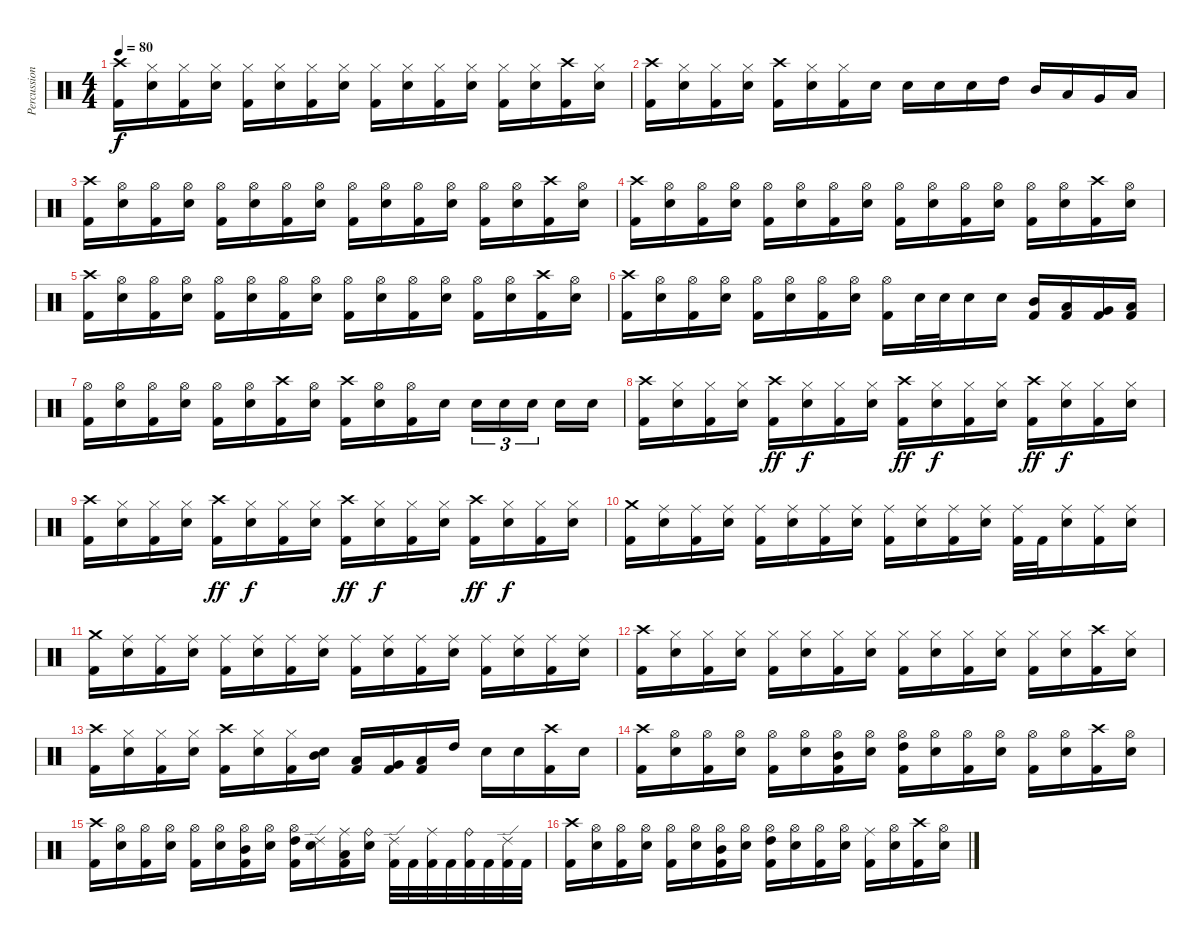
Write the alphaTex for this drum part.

\track ("Percussion" "Percussion") {instrument percussion}
\staff {score}
\articulation defaults
\ts (4 4)
\tempo 80
\clef neutral
\ks c
("Crash high (hit)" "Kick (hit) 2").16{dy f} ("Hi-Hat (closed)" "Snare (hit) 2").16 ("Hi-Hat (closed)" "Kick (hit) 2").16 ("Hi-Hat (closed)" "Snare (hit) 2").16 ("Hi-Hat (closed)" "Kick (hit) 2").16 ("Hi-Hat (closed)" "Snare (hit) 2").16 ("Hi-Hat (closed)" "Kick (hit) 2").16 ("Hi-Hat (closed)" "Snare (hit) 2").16 ("Hi-Hat (closed)" "Kick (hit) 2").16 ("Hi-Hat (closed)" "Snare (hit) 2").16 ("Hi-Hat (closed)" "Kick (hit) 2").16 ("Hi-Hat (closed)" "Snare (hit) 2").16 ("Hi-Hat (closed)" "Kick (hit) 2").16 ("Hi-Hat (closed)" "Snare (hit) 2").16 ("Crash high (hit)" "Kick (hit) 2").16 ("Hi-Hat (closed)" "Snare (hit) 2").16 |
("Crash high (hit)" "Kick (hit) 2").16 ("Hi-Hat (closed)" "Snare (hit) 2").16 ("Hi-Hat (closed)" "Kick (hit) 2").16 ("Hi-Hat (closed)" "Snare (hit) 2").16 ("Crash high (hit)" "Kick (hit) 2").16 ("Hi-Hat (closed)" "Snare (hit) 2").16 ("Hi-Hat (closed)" "Kick (hit) 2").16 "Snare (hit) 2".16 "Snare (hit) 2".16 "Snare (hit) 2".16 "Snare (hit) 2".16 "High Tom (hit)".16 "Mid Tom (hit)".16 "Low Tom (hit)".16 "Very Low Tom (hit)".16 "Low Floor Tom (hit)".16 |
("Crash high (hit)" "Kick (hit) 2").16 ("Hi-Hat (open)" "Snare (hit) 2").16 ("Hi-Hat (open)" "Kick (hit) 2").16 ("Hi-Hat (open)" "Snare (hit) 2").16 ("Hi-Hat (open)" "Kick (hit) 2").16 ("Hi-Hat (open)" "Snare (hit) 2").16 ("Hi-Hat (open)" "Kick (hit) 2").16 ("Hi-Hat (open)" "Snare (hit) 2").16 ("Hi-Hat (open)" "Kick (hit) 2").16 ("Hi-Hat (open)" "Snare (hit) 2").16 ("Hi-Hat (open)" "Kick (hit) 2").16 ("Hi-Hat (open)" "Snare (hit) 2").16 ("Hi-Hat (open)" "Kick (hit) 2").16 ("Hi-Hat (open)" "Snare (hit) 2").16 ("Crash high (hit)" "Kick (hit) 2").16 ("Hi-Hat (open)" "Snare (hit) 2").16 |
("Crash high (hit)" "Kick (hit) 2").16 ("Hi-Hat (open)" "Snare (hit) 2").16 ("Hi-Hat (open)" "Kick (hit) 2").16 ("Hi-Hat (open)" "Snare (hit) 2").16 ("Hi-Hat (open)" "Kick (hit) 2").16 ("Hi-Hat (open)" "Snare (hit) 2").16 ("Hi-Hat (open)" "Kick (hit) 2").16 ("Hi-Hat (open)" "Snare (hit) 2").16 ("Hi-Hat (open)" "Kick (hit) 2").16 ("Hi-Hat (open)" "Snare (hit) 2").16 ("Hi-Hat (open)" "Kick (hit) 2").16 ("Hi-Hat (open)" "Snare (hit) 2").16 ("Hi-Hat (open)" "Kick (hit) 2").16 ("Hi-Hat (open)" "Snare (hit) 2").16 ("Crash high (hit)" "Kick (hit) 2").16 ("Hi-Hat (open)" "Snare (hit) 2").16 |
("Crash high (hit)" "Kick (hit) 2").16 ("Hi-Hat (open)" "Snare (hit) 2").16 ("Hi-Hat (open)" "Kick (hit) 2").16 ("Hi-Hat (open)" "Snare (hit) 2").16 ("Hi-Hat (open)" "Kick (hit) 2").16 ("Hi-Hat (open)" "Snare (hit) 2").16 ("Hi-Hat (open)" "Kick (hit) 2").16 ("Hi-Hat (open)" "Snare (hit) 2").16 ("Hi-Hat (open)" "Kick (hit) 2").16 ("Hi-Hat (open)" "Snare (hit) 2").16 ("Hi-Hat (open)" "Kick (hit) 2").16 ("Hi-Hat (open)" "Snare (hit) 2").16 ("Hi-Hat (open)" "Kick (hit) 2").16 ("Hi-Hat (open)" "Snare (hit) 2").16 ("Crash high (hit)" "Kick (hit) 2").16 ("Hi-Hat (open)" "Snare (hit) 2").16 |
("Crash high (hit)" "Kick (hit) 2").16 ("Hi-Hat (open)" "Snare (hit) 2").16 ("Hi-Hat (open)" "Kick (hit) 2").16 ("Hi-Hat (open)" "Snare (hit) 2").16 ("Hi-Hat (open)" "Kick (hit) 2").16 ("Hi-Hat (open)" "Snare (hit) 2").16 ("Hi-Hat (open)" "Kick (hit) 2").16 ("Hi-Hat (open)" "Snare (hit) 2").16 ("Hi-Hat (open)" "Kick (hit) 2").16 "Snare (hit) 2".32 "Snare (hit) 2".32 "Snare (hit) 2".16 "Snare (hit) 2".16 ("Mid Tom (hit)" "Kick (hit) 2").16 ("Low Tom (hit)" "Kick (hit) 2").16 ("Very Low Tom (hit)" "Kick (hit) 2").16 ("Low Floor Tom (hit)" "Kick (hit) 2").16 |
("Hi-Hat (open)" "Kick (hit) 2").16 ("Hi-Hat (open)" "Snare (hit) 2").16 ("Hi-Hat (open)" "Kick (hit) 2").16 ("Hi-Hat (open)" "Snare (hit) 2").16 ("Hi-Hat (open)" "Kick (hit) 2").16 ("Hi-Hat (open)" "Snare (hit) 2").16 ("Crash high (hit)" "Kick (hit) 2").16 ("Hi-Hat (open)" "Snare (hit) 2").16 ("Crash high (hit)" "Kick (hit) 2").16 ("Hi-Hat (open)" "Snare (hit) 2").16 ("Hi-Hat (open)" "Kick (hit) 2").16 "Snare (hit) 2".16 "Snare (hit) 2".16{tu (3 2)} "Snare (hit) 2".16{tu (3 2)} "Snare (hit) 2".16{tu (3 2) beam splitsecondary} "Snare (hit) 2".16 "Snare (hit) 2".16 |
("Crash high (hit)" "Kick (hit) 2").16 ("Hi-Hat (closed)" "Snare (hit) 2").16 ("Hi-Hat (closed)" "Kick (hit) 2").16 ("Hi-Hat (closed)" "Snare (hit) 2").16 ("Crash high (hit)" "Kick (hit) 2").16{dy ff} ("Hi-Hat (closed)" "Snare (hit) 2").16{dy f} ("Hi-Hat (closed)" "Kick (hit) 2").16 ("Hi-Hat (closed)" "Snare (hit) 2").16 ("Crash high (hit)" "Kick (hit) 2").16{dy ff} ("Hi-Hat (closed)" "Snare (hit) 2").16{dy f} ("Hi-Hat (closed)" "Kick (hit) 2").16 ("Hi-Hat (closed)" "Snare (hit) 2").16 ("Crash high (hit)" "Kick (hit) 2").16{dy ff} ("Hi-Hat (closed)" "Snare (hit) 2").16{dy f} ("Hi-Hat (closed)" "Kick (hit) 2").16 ("Hi-Hat (closed)" "Snare (hit) 2").16 |
("Crash high (hit)" "Kick (hit) 2").16 ("Hi-Hat (closed)" "Snare (hit) 2").16 ("Hi-Hat (closed)" "Kick (hit) 2").16 ("Hi-Hat (closed)" "Snare (hit) 2").16 ("Crash high (hit)" "Kick (hit) 2").16{dy ff} ("Hi-Hat (closed)" "Snare (hit) 2").16{dy f} ("Hi-Hat (closed)" "Kick (hit) 2").16 ("Hi-Hat (closed)" "Snare (hit) 2").16 ("Crash high (hit)" "Kick (hit) 2").16{dy ff} ("Hi-Hat (closed)" "Snare (hit) 2").16{dy f} ("Hi-Hat (closed)" "Kick (hit) 2").16 ("Hi-Hat (closed)" "Snare (hit) 2").16 ("Crash high (hit)" "Kick (hit) 2").16{dy ff} ("Hi-Hat (closed)" "Snare (hit) 2").16{dy f} ("Hi-Hat (closed)" "Kick (hit) 2").16 ("Hi-Hat (closed)" "Snare (hit) 2").16 |
("Crash medium (hit)" "Kick (hit) 2").16 ("Ride (middle)" "Snare (hit) 2").16 ("Ride (middle)" "Kick (hit) 2").16 ("Ride (middle)" "Snare (hit) 2").16 ("Ride (middle)" "Kick (hit) 2").16 ("Ride (middle)" "Snare (hit) 2").16 ("Ride (middle)" "Kick (hit) 2").16 ("Ride (middle)" "Snare (hit) 2").16 ("Ride (middle)" "Kick (hit) 2").16 ("Ride (middle)" "Snare (hit) 2").16 ("Ride (middle)" "Kick (hit) 2").16 ("Ride (middle)" "Snare (hit) 2").16 ("Ride (middle)" "Kick (hit) 2").32 "Kick (hit) 2".32 ("Ride (middle)" "Snare (hit) 2").16 ("Ride (middle)" "Kick (hit) 2").16 ("Ride (middle)" "Snare (hit) 2").16 |
("Crash medium (hit)" "Kick (hit) 2").16 ("Ride (middle)" "Snare (hit) 2").16 ("Ride (middle)" "Kick (hit) 2").16 ("Ride (middle)" "Snare (hit) 2").16 ("Ride (middle)" "Kick (hit) 2").16 ("Ride (middle)" "Snare (hit) 2").16 ("Ride (middle)" "Kick (hit) 2").16 ("Ride (middle)" "Snare (hit) 2").16 ("Ride (middle)" "Kick (hit) 2").16 ("Ride (middle)" "Snare (hit) 2").16 ("Ride (middle)" "Kick (hit) 2").16 ("Ride (middle)" "Snare (hit) 2").16 ("Ride (middle)" "Kick (hit) 2").16 ("Ride (middle)" "Snare (hit) 2").16 ("Ride (middle)" "Kick (hit) 2").16 ("Ride (middle)" "Snare (hit) 2").16 |
("Crash high (hit)" "Kick (hit) 2").16 ("Hi-Hat (closed)" "Snare (hit) 2").16 ("Hi-Hat (closed)" "Kick (hit) 2").16 ("Hi-Hat (closed)" "Snare (hit) 2").16 ("Hi-Hat (closed)" "Kick (hit) 2").16 ("Hi-Hat (closed)" "Snare (hit) 2").16 ("Hi-Hat (closed)" "Kick (hit) 2").16 ("Hi-Hat (closed)" "Snare (hit) 2").16 ("Hi-Hat (closed)" "Kick (hit) 2").16 ("Hi-Hat (closed)" "Snare (hit) 2").16 ("Hi-Hat (closed)" "Kick (hit) 2").16 ("Hi-Hat (closed)" "Snare (hit) 2").16 ("Hi-Hat (closed)" "Kick (hit) 2").16 ("Hi-Hat (closed)" "Snare (hit) 2").16 ("Crash high (hit)" "Kick (hit) 2").16 ("Hi-Hat (closed)" "Snare (hit) 2").16 |
("Crash high (hit)" "Kick (hit) 2").16 ("Hi-Hat (closed)" "Snare (hit) 2").16 ("Hi-Hat (closed)" "Kick (hit) 2").16 ("Hi-Hat (closed)" "Snare (hit) 2").16 ("Crash high (hit)" "Kick (hit) 2").16 ("Hi-Hat (closed)" "Snare (hit) 2").16 ("Hi-Hat (closed)" "Kick (hit) 2").16 ("Mid Tom (hit)" "Snare (hit) 2").16 ("Low Tom (hit)" "Kick (hit) 2").16 ("Very Low Tom (hit)" "Kick (hit) 2").16 ("Low Floor Tom (hit)" "Kick (hit) 2").16 "High Tom (hit)".16 "Snare (hit) 2".16 "Snare (hit) 2".16 ("Crash high (hit)" "Kick (hit) 2").16 "Snare (hit) 2".16 |
("Crash high (hit)" "Kick (hit) 2").16 ("Hi-Hat (open)" "Snare (hit) 2").16 ("Hi-Hat (open)" "Kick (hit) 2").16 ("Hi-Hat (open)" "Snare (hit) 2").16 ("Hi-Hat (open)" "Kick (hit) 2").16 ("Hi-Hat (open)" "Snare (hit) 2").16 ("Hi-Hat (open)" "Mid Tom (hit)" "Kick (hit) 2").16 ("Hi-Hat (open)" "Snare (hit) 2").16 ("Hi-Hat (open)" "High Tom (hit)" "Kick (hit) 2").16 ("Hi-Hat (open)" "Snare (hit) 2").16 ("Hi-Hat (open)" "Kick (hit) 2").16 ("Hi-Hat (open)" "Snare (hit) 2").16 ("Hi-Hat (open)" "Kick (hit) 2").16 ("Hi-Hat (open)" "Snare (hit) 2").16 ("Crash high (hit)" "Kick (hit) 2").16 ("Hi-Hat (open)" "Snare (hit) 2").16 |
("Crash high (hit)" "Kick (hit) 2").16 ("Hi-Hat (open)" "Snare (hit) 2").16 ("Hi-Hat (open)" "Kick (hit) 2").16 ("Hi-Hat (open)" "Snare (hit) 2").16 ("Hi-Hat (open)" "Kick (hit) 2").16 ("Hi-Hat (open)" "Snare (hit) 2").16 ("Hi-Hat (open)" "Mid Tom (hit)" "Kick (hit) 2").16 ("Hi-Hat (open)" "Snare (hit) 2").16 ("Hi-Hat (open)" "High Tom (hit)" "Kick (hit) 2").16 ("Ride (edge) 2" "Snare (hit) 2").16 ("Ride (middle)" "Low Tom (hit)" "Kick (hit) 2").16 ("Ride (bell)" "Snare (hit) 2").16 ("Ride (edge) 2" "Kick (hit) 2").32 "Kick (hit) 2".32 ("Ride (middle)" "Kick (hit) 2").32 "Kick (hit) 2".32 ("Ride (bell)" "Kick (hit) 2").32 "Kick (hit) 2".32 ("Ride (edge) 2" "Kick (hit) 2").32 "Kick (hit) 2".32 |
("Crash high (hit)" "Kick (hit) 2").16 ("Hi-Hat (open)" "Snare (hit) 2").16 ("Hi-Hat (open)" "Kick (hit) 2").16 ("Hi-Hat (open)" "Snare (hit) 2").16 ("Hi-Hat (open)" "Kick (hit) 2").16 ("Hi-Hat (open)" "Snare (hit) 2").16 ("Hi-Hat (open)" "Mid Tom (hit)" "Kick (hit) 2").16 ("Hi-Hat (open)" "Snare (hit) 2").16 ("Hi-Hat (open)" "High Tom (hit)" "Kick (hit) 2").16 ("Hi-Hat (open)" "Snare (hit) 2").16 ("Hi-Hat (open)" "Kick (hit) 2").16 ("Hi-Hat (open)" "Snare (hit) 2").16 ("Ride (middle)" "Kick (hit) 2").16 ("Hi-Hat (open)" "Snare (hit) 2").16 ("Crash high (hit)" "Kick (hit) 2").16 ("Hi-Hat (open)" "Snare (hit) 2").16
